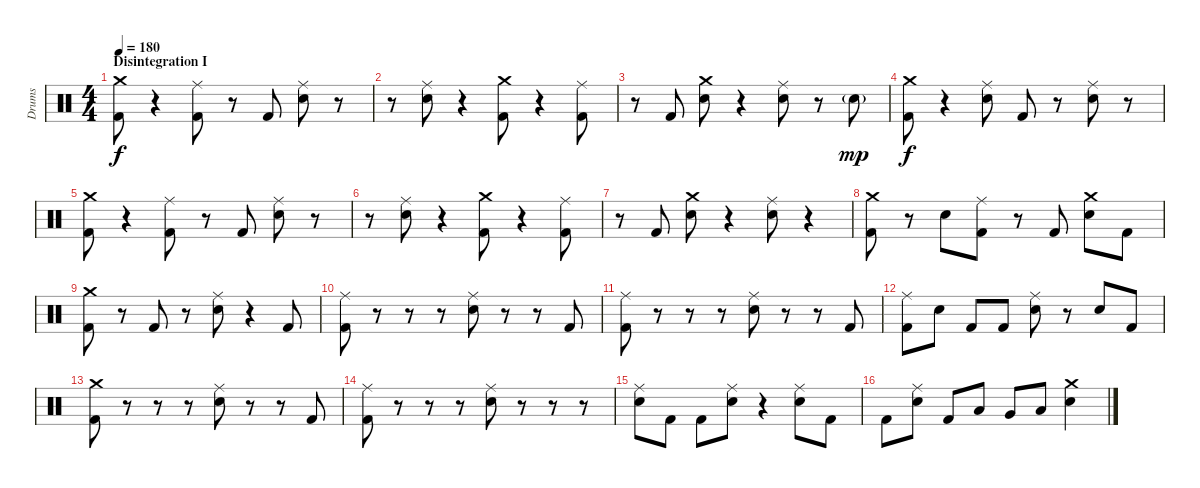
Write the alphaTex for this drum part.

\track ("Drums" "Drums") {instrument percussion}
\staff {score}
\articulation defaults
\ts (4 4)
\section ("" "Disintegration I")
\tempo 180
\clef neutral
\ks c
("Crash medium (hit)" "Kick (hit) 2").8{dy f} r.4 ("Ride (middle)" "Kick (hit) 2").8 r.8 "Kick (hit) 2".8 ("Ride (middle)" "Electric Snare (hit)").8 r.8 |
r.8 ("Ride (middle)" "Electric Snare (hit)").8 r.4 ("Crash medium (hit)" "Kick (hit) 2").8 r.4 ("Ride (middle)" "Kick (hit) 2").8 |
r.8 "Kick (hit) 2".8 ("Crash medium (hit)" "Electric Snare (hit)").8 r.4 ("Ride (middle)" "Electric Snare (hit)").8 r.8 "Electric Snare (hit)"{g}.8{dy mp} |
("Crash medium (hit)" "Kick (hit) 2").8{dy f} r.4 ("Ride (middle)" "Electric Snare (hit)").8 "Kick (hit) 2".8 r.8 ("Ride (middle)" "Electric Snare (hit)").8 r.8 |
("Crash medium (hit)" "Kick (hit) 2").8 r.4 ("Ride (middle)" "Kick (hit) 2").8 r.8 "Kick (hit) 2".8 ("Ride (middle)" "Electric Snare (hit)").8 r.8 |
r.8 ("Ride (middle)" "Electric Snare (hit)").8 r.4 ("Crash medium (hit)" "Kick (hit) 2").8 r.4 ("Ride (middle)" "Kick (hit) 2").8 |
r.8 "Kick (hit) 2".8 ("Crash medium (hit)" "Electric Snare (hit)").8 r.4 ("Ride (middle)" "Electric Snare (hit)").8 r.4 |
("Crash medium (hit)" "Kick (hit) 2").8 r.8 "Electric Snare (hit)".8 ("Ride (middle)" "Kick (hit) 2").8 r.8 "Kick (hit) 2".8 ("Crash medium (hit)" "Electric Snare (hit)").8 "Kick (hit) 2".8 |
("Crash medium (hit)" "Kick (hit) 2").8 r.8 "Kick (hit) 2".8 r.8 ("Ride (middle)" "Electric Snare (hit)").8 r.4 "Kick (hit) 2".8 |
("Ride (middle)" "Kick (hit) 2").8 r.8 r.8 r.8 ("Ride (middle)" "Electric Snare (hit)").8 r.8 r.8 "Kick (hit) 2".8 |
("Ride (middle)" "Kick (hit) 2").8 r.8 r.8 r.8 ("Ride (middle)" "Electric Snare (hit)").8 r.8 r.8 "Kick (hit) 2".8 |
("Ride (middle)" "Kick (hit) 2").8 "Electric Snare (hit)".8 "Kick (hit) 2".8 "Kick (hit) 2".8 ("Ride (middle)" "Electric Snare (hit)").8 r.8 "Electric Snare (hit)".8 "Kick (hit) 2".8 |
("Crash medium (hit)" "Kick (hit) 2").8 r.8 r.8 r.8 ("Ride (middle)" "Electric Snare (hit)").8 r.8 r.8 "Kick (hit) 2".8 |
("Ride (middle)" "Kick (hit) 2").8 r.8 r.8 r.8 ("Ride (middle)" "Electric Snare (hit)").8 r.8 r.8 r.8 |
("Ride (middle)" "Electric Snare (hit)").8 "Kick (hit) 2".8 "Kick (hit) 2".8 ("Ride (middle)" "Electric Snare (hit)").8 r.4 ("Ride (middle)" "Electric Snare (hit)").8 "Kick (hit) 2".8 |
"Kick (hit) 2".8 ("Ride (middle)" "Electric Snare (hit)").8 "Kick (hit) 2".8 "Low Tom (hit)".8 "Very Low Tom (hit)".8 "Low Floor Tom (hit)".8 ("Crash medium (hit)" "Electric Snare (hit)").4
